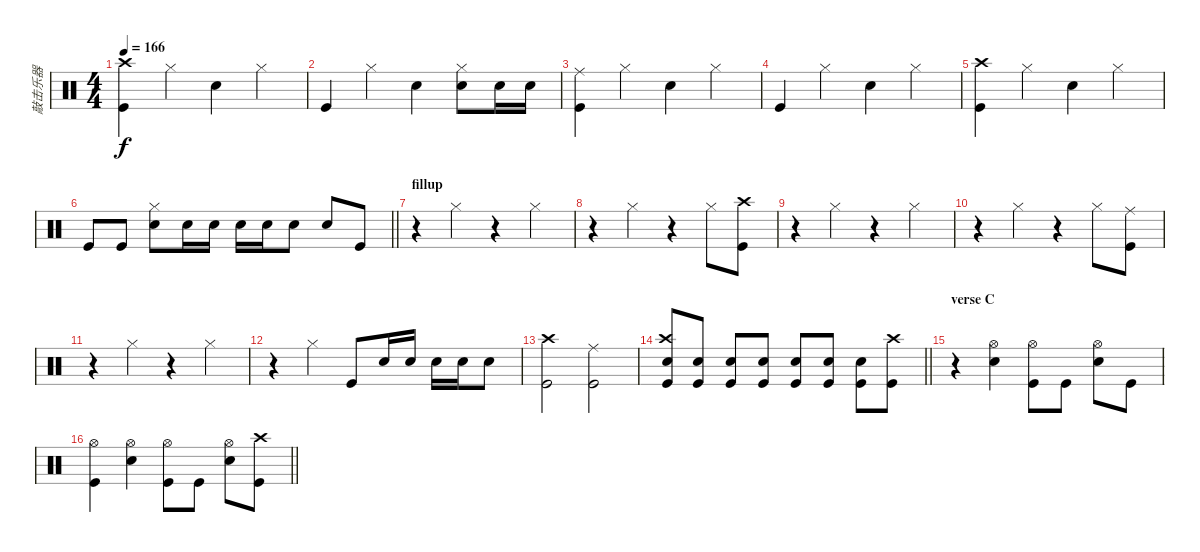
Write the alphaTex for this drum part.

\track ("敲击乐器" "敲击乐器") {instrument percussion}
\staff {score}
\articulation defaults
\ts (4 4)
\tempo 166
\clef neutral
\ks c
("Kick (hit)" "Crash high (hit)").4{dy f} "Hi-Hat (closed)".4 "Snare (hit) 2".4 "Hi-Hat (closed)".4 |
"Kick (hit)".4 "Hi-Hat (closed)".4 "Snare (hit) 2".4 ("Hi-Hat (closed)" "Snare (hit) 2").8 "Snare (hit) 2".16 "Snare (hit) 2".16 |
("Kick (hit)" "Ride (middle)").4 "Hi-Hat (closed)".4 "Snare (hit) 2".4 "Hi-Hat (closed)".4 |
"Kick (hit)".4 "Hi-Hat (closed)".4 "Snare (hit) 2".4 "Hi-Hat (closed)".4 |
("Kick (hit)" "Crash high (hit)").4 "Hi-Hat (closed)".4 "Snare (hit) 2".4 "Hi-Hat (closed)".4 |
\barLineRight lightlight "Kick (hit)".8 "Kick (hit)".8
("Hi-Hat (closed)" "Snare (hit) 2").8 "Snare (hit) 2".16 "Snare (hit) 2".16 "Snare (hit) 2".16 "Snare (hit) 2".16 "Snare (hit) 2".8 "Snare (hit) 2".8 "Kick (hit)".8 |
\section ("" "fillup")
r.4 "Hi-Hat (closed)".4 r.4 "Hi-Hat (closed)".4 |
r.4 "Hi-Hat (closed)".4 r.4 "Hi-Hat (closed)".8 ("Kick (hit)" "Crash high (hit)").8 |
r.4 "Hi-Hat (closed)".4 r.4 "Hi-Hat (closed)".4 |
r.4 "Hi-Hat (closed)".4 r.4 "Hi-Hat (closed)".8 ("Kick (hit)" "Ride (middle)").8 |
r.4 "Hi-Hat (closed)".4 r.4 "Hi-Hat (closed)".4 |
r.4 "Hi-Hat (closed)".4 "Kick (hit)".8 "Snare (hit) 2".16 "Snare (hit) 2".16 "Snare (hit) 2".16 "Snare (hit) 2".16 "Snare (hit) 2".8 |
("Kick (hit)" "Crash high (hit)").2 ("Kick (hit)" "Ride (middle)").2 |
\barLineRight lightlight
("Crash high (hit)" "Kick (hit)" "Snare (hit) 2").8 ("Kick (hit)" "Snare (hit) 2").8 ("Kick (hit)" "Snare (hit) 2").8 ("Kick (hit)" "Snare (hit) 2").8 ("Kick (hit)" "Snare (hit) 2").8 ("Kick (hit)" "Snare (hit) 2").8 ("Kick (hit)" "Snare (hit) 2").8 ("Kick (hit)" "Crash high (hit)").8 |
\section ("" "verse C")
r.4 ("Hi-Hat (open)" "Snare (hit) 2").4 ("Kick (hit)" "Hi-Hat (open)").8 "Kick (hit)".8 ("Snare (hit) 2" "Hi-Hat (open)").8 "Kick (hit)".8 |
\barLineRight lightlight
("Kick (hit)" "Hi-Hat (open)").4 ("Hi-Hat (open)" "Snare (hit) 2").4 ("Kick (hit)" "Hi-Hat (open)").8 "Kick (hit)".8 ("Snare (hit) 2" "Hi-Hat (open)").8 ("Kick (hit)" "Crash high (hit)").8
